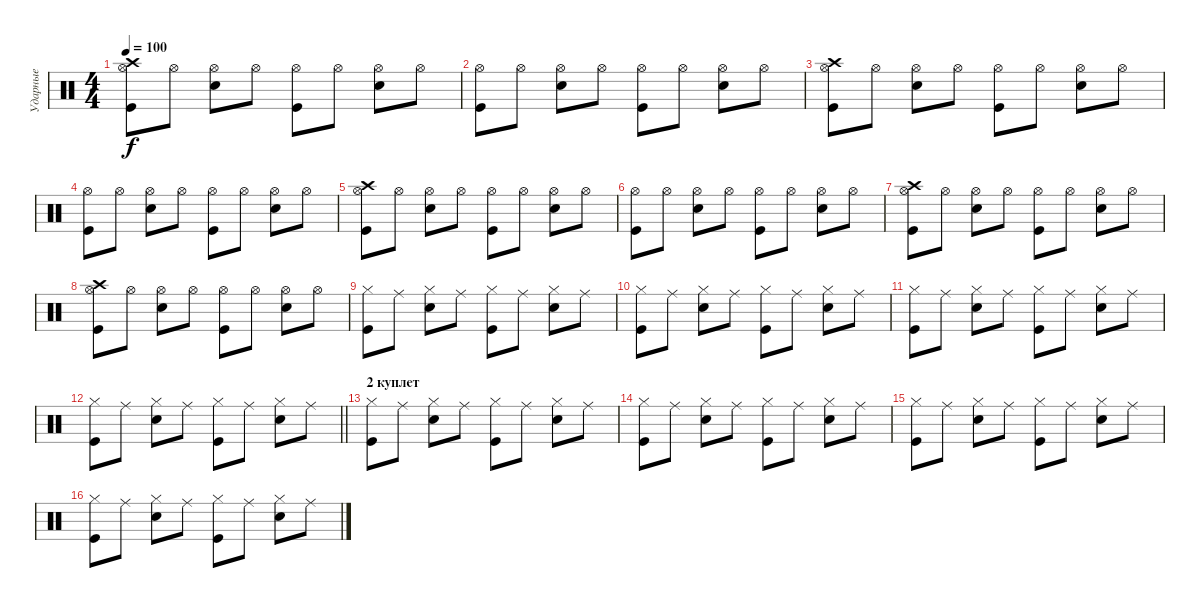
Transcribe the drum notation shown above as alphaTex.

\track ("Ударные" "Ударные") {instrument percussion}
\staff {score}
\articulation defaults
\ts (4 4)
\tempo 100
\clef neutral
\ks c
("Hi-Hat (open)" "Kick (hit)" "Crash high (hit)").8{dy f} "Hi-Hat (open)".8 ("Hi-Hat (open)" "Snare (hit) 2").8 "Hi-Hat (open)".8 ("Hi-Hat (open)" "Kick (hit)").8 "Hi-Hat (open)".8 ("Hi-Hat (open)" "Snare (hit) 2").8 "Hi-Hat (open)".8 |
("Hi-Hat (open)" "Kick (hit)").8 "Hi-Hat (open)".8 ("Hi-Hat (open)" "Snare (hit) 2").8 "Hi-Hat (open)".8 ("Hi-Hat (open)" "Kick (hit)").8 "Hi-Hat (open)".8 ("Hi-Hat (open)" "Snare (hit) 2").8 "Hi-Hat (open)".8 |
("Hi-Hat (open)" "Kick (hit)" "Crash high (hit)").8 "Hi-Hat (open)".8 ("Hi-Hat (open)" "Snare (hit) 2").8 "Hi-Hat (open)".8 ("Hi-Hat (open)" "Kick (hit)").8 "Hi-Hat (open)".8 ("Hi-Hat (open)" "Snare (hit) 2").8 "Hi-Hat (open)".8 |
("Hi-Hat (open)" "Kick (hit)").8 "Hi-Hat (open)".8 ("Hi-Hat (open)" "Snare (hit) 2").8 "Hi-Hat (open)".8 ("Hi-Hat (open)" "Kick (hit)").8 "Hi-Hat (open)".8 ("Hi-Hat (open)" "Snare (hit) 2").8 "Hi-Hat (open)".8 |
("Hi-Hat (open)" "Kick (hit)" "Crash high (hit)").8 "Hi-Hat (open)".8 ("Hi-Hat (open)" "Snare (hit) 2").8 "Hi-Hat (open)".8 ("Hi-Hat (open)" "Kick (hit)").8 "Hi-Hat (open)".8 ("Hi-Hat (open)" "Snare (hit) 2").8 "Hi-Hat (open)".8 |
("Hi-Hat (open)" "Kick (hit)").8 "Hi-Hat (open)".8 ("Hi-Hat (open)" "Snare (hit) 2").8 "Hi-Hat (open)".8 ("Hi-Hat (open)" "Kick (hit)").8 "Hi-Hat (open)".8 ("Hi-Hat (open)" "Snare (hit) 2").8 "Hi-Hat (open)".8 |
("Hi-Hat (open)" "Kick (hit)" "Crash high (hit)").8 "Hi-Hat (open)".8 ("Hi-Hat (open)" "Snare (hit) 2").8 "Hi-Hat (open)".8 ("Hi-Hat (open)" "Kick (hit)").8 "Hi-Hat (open)".8 ("Hi-Hat (open)" "Snare (hit) 2").8 "Hi-Hat (open)".8 |
("Hi-Hat (open)" "Kick (hit)" "Crash high (hit)").8 "Hi-Hat (open)".8 ("Hi-Hat (open)" "Snare (hit) 2").8 "Hi-Hat (open)".8 ("Hi-Hat (open)" "Kick (hit)").8 "Hi-Hat (open)".8 ("Hi-Hat (open)" "Snare (hit) 2").8 "Hi-Hat (open)".8 |
("Hi-Hat (closed)" "Kick (hit)").8 "Ride (middle)".8 ("Hi-Hat (closed)" "Snare (hit) 2").8 "Ride (middle)".8 ("Hi-Hat (closed)" "Kick (hit)").8 "Ride (middle)".8 ("Hi-Hat (closed)" "Snare (hit) 2").8 "Ride (middle)".8 |
("Hi-Hat (closed)" "Kick (hit)").8 "Ride (middle)".8 ("Hi-Hat (closed)" "Snare (hit) 2").8 "Ride (middle)".8 ("Hi-Hat (closed)" "Kick (hit)").8 "Ride (middle)".8 ("Hi-Hat (closed)" "Snare (hit) 2").8 "Ride (middle)".8 |
("Hi-Hat (closed)" "Kick (hit)").8 "Ride (middle)".8 ("Hi-Hat (closed)" "Snare (hit) 2").8 "Ride (middle)".8 ("Hi-Hat (closed)" "Kick (hit)").8 "Ride (middle)".8 ("Hi-Hat (closed)" "Snare (hit) 2").8 "Ride (middle)".8 |
\barLineRight lightlight
("Hi-Hat (closed)" "Kick (hit)").8 "Ride (middle)".8 ("Hi-Hat (closed)" "Snare (hit) 2").8 "Ride (middle)".8 ("Hi-Hat (closed)" "Kick (hit)").8 "Ride (middle)".8 ("Hi-Hat (closed)" "Snare (hit) 2").8 "Ride (middle)".8 |
\section ("" "2 куплет")
("Hi-Hat (closed)" "Kick (hit)").8 "Ride (middle)".8 ("Hi-Hat (closed)" "Snare (hit) 2").8 "Ride (middle)".8 ("Hi-Hat (closed)" "Kick (hit)").8 "Ride (middle)".8 ("Hi-Hat (closed)" "Snare (hit) 2").8 "Ride (middle)".8 |
("Hi-Hat (closed)" "Kick (hit)").8 "Ride (middle)".8 ("Hi-Hat (closed)" "Snare (hit) 2").8 "Ride (middle)".8 ("Hi-Hat (closed)" "Kick (hit)").8 "Ride (middle)".8 ("Hi-Hat (closed)" "Snare (hit) 2").8 "Ride (middle)".8 |
("Hi-Hat (closed)" "Kick (hit)").8 "Ride (middle)".8 ("Hi-Hat (closed)" "Snare (hit) 2").8 "Ride (middle)".8 ("Hi-Hat (closed)" "Kick (hit)").8 "Ride (middle)".8 ("Hi-Hat (closed)" "Snare (hit) 2").8 "Ride (middle)".8 |
("Hi-Hat (closed)" "Kick (hit)").8 "Ride (middle)".8 ("Hi-Hat (closed)" "Snare (hit) 2").8 "Ride (middle)".8 ("Hi-Hat (closed)" "Kick (hit)").8 "Ride (middle)".8 ("Hi-Hat (closed)" "Snare (hit) 2").8 "Ride (middle)".8
